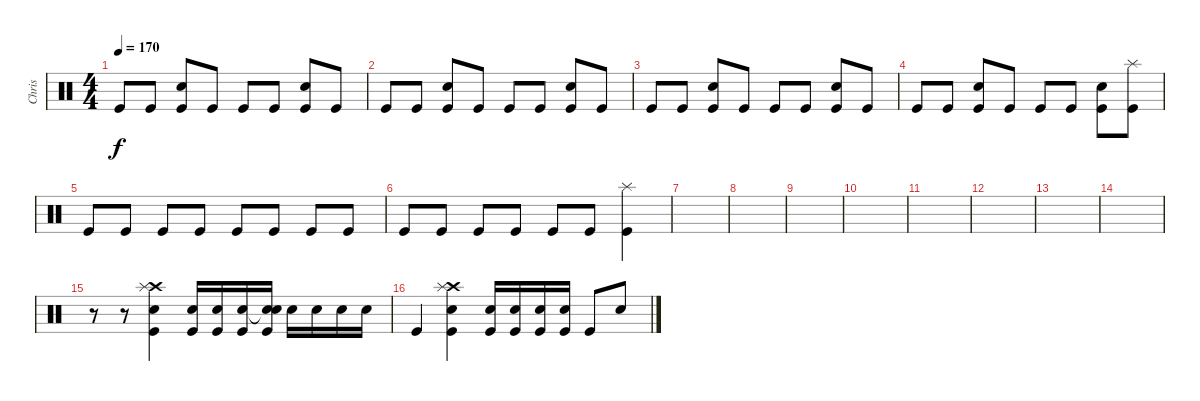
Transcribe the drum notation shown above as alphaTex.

\track ("Chris" "Chris") {instrument percussion}
\staff {score}
\articulation defaults
\ts (4 4)
\tempo 170
\clef neutral
\ks c "Kick (hit)".8{dy f} "Kick (hit)".8
("Kick (hit)" "Snare (hit) 2").8 "Kick (hit)".8 "Kick (hit)".8 "Kick (hit)".8 ("Kick (hit)" "Snare (hit) 2").8 "Kick (hit)".8 |
"Kick (hit)".8 "Kick (hit)".8 ("Kick (hit)" "Snare (hit) 2").8 "Kick (hit)".8 "Kick (hit)".8 "Kick (hit)".8 ("Kick (hit)" "Snare (hit) 2").8 "Kick (hit)".8 |
"Kick (hit)".8 "Kick (hit)".8 ("Kick (hit)" "Snare (hit) 2").8 "Kick (hit)".8 "Kick (hit)".8 "Kick (hit)".8 ("Kick (hit)" "Snare (hit) 2").8 "Kick (hit)".8 |
"Kick (hit)".8 "Kick (hit)".8 ("Kick (hit)" "Snare (hit) 2").8 "Kick (hit)".8 "Kick (hit)".8 "Kick (hit)".8 ("Kick (hit)" "Snare (hit) 2").8 ("Kick (hit)" "Splash (hit)").8 |
"Kick (hit)".8 "Kick (hit)".8 "Kick (hit)".8 "Kick (hit)".8 "Kick (hit)".8 "Kick (hit)".8 "Kick (hit)".8 "Kick (hit)".8 |
"Kick (hit)".8 "Kick (hit)".8 "Kick (hit)".8 "Kick (hit)".8 "Kick (hit)".8 "Kick (hit)".8 ("Kick (hit)" "Splash (hit)").4 |
|
|
|
|
|
|
|
|
r.8 r.8 ("Kick (hit)" "Crash high (hit)" "Splash (hit)" "Snare (hit) 2").4 ("Kick (hit)" "Snare (hit) 2").16 ("Kick (hit)" "Snare (hit) 2").16 ("Kick (hit)" "Snare (hit) 2").16 ("Kick (hit)" "Snare (hit)"{t} "Snare (hit) 2").16 "Electric Snare (hit)".16 "Electric Snare (hit)".16 "Electric Snare (hit)".16 "Electric Snare (hit)".16 |
"Kick (hit)".4 ("Kick (hit)" "Crash high (hit)" "Splash (hit)" "Snare (hit) 2").4 ("Kick (hit)" "Snare (hit) 2").16 ("Kick (hit)" "Snare (hit) 2").16 ("Kick (hit)" "Snare (hit) 2").16 ("Kick (hit)" "Snare (hit) 2").16 "Kick (hit)".8 "Snare (hit) 2".8
